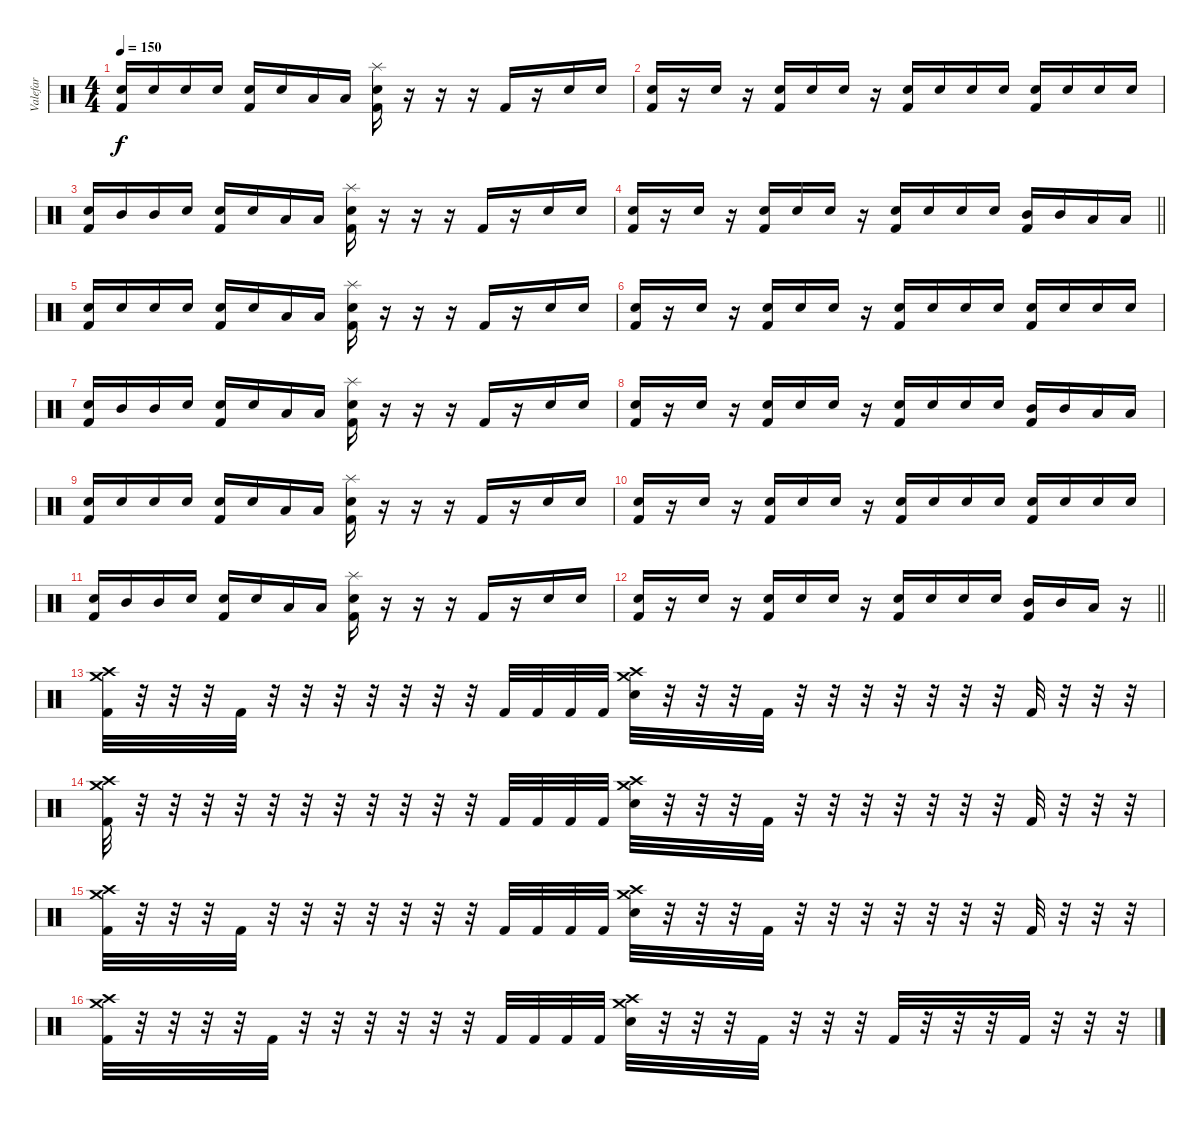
\track ("Valefar" "Valefar") {instrument percussion}
\staff {score}
\articulation defaults
\ts (4 4)
\tempo 150
\clef neutral
\ks c
("Electric Snare (hit)" "Kick (hit) 2").16{dy f} "Electric Snare (hit)".16 "Electric Snare (hit)".16 "Electric Snare (hit)".16 ("Electric Snare (hit)" "Kick (hit) 2").16 "Electric Snare (hit)".16 "Low Tom (hit)".16 "Low Tom (hit)".16 ("Splash (hit)" "Electric Snare (hit)" "Kick (hit) 2").16 r.16 r.16 r.16 "Kick (hit) 2".16 r.16 "Electric Snare (hit)".16 "Electric Snare (hit)".16 |
("Electric Snare (hit)" "Kick (hit) 2").16 r.16 "Electric Snare (hit)".16 r.16 ("Electric Snare (hit)" "Kick (hit) 2").16 "Electric Snare (hit)".16 "Electric Snare (hit)".16 r.16 ("Electric Snare (hit)" "Kick (hit) 2").16 "Electric Snare (hit)".16 "Electric Snare (hit)".16 "Electric Snare (hit)".16 ("Electric Snare (hit)" "Kick (hit) 2").16 "Electric Snare (hit)".16 "Electric Snare (hit)".16 "Electric Snare (hit)".16 |
("Electric Snare (hit)" "Kick (hit) 2").16 "Mid Tom (hit)".16 "Mid Tom (hit)".16 "Electric Snare (hit)".16 ("Electric Snare (hit)" "Kick (hit) 2").16 "Electric Snare (hit)".16 "Low Tom (hit)".16 "Low Tom (hit)".16 ("Splash (hit)" "Electric Snare (hit)" "Kick (hit) 2").16 r.16 r.16 r.16 "Kick (hit) 2".16 r.16 "Electric Snare (hit)".16 "Electric Snare (hit)".16 |
\barLineRight lightlight
("Electric Snare (hit)" "Kick (hit) 2").16 r.16 "Electric Snare (hit)".16 r.16 ("Electric Snare (hit)" "Kick (hit) 2").16 "Electric Snare (hit)".16 "Electric Snare (hit)".16 r.16 ("Electric Snare (hit)" "Kick (hit) 2").16 "Electric Snare (hit)".16 "Electric Snare (hit)".16 "Electric Snare (hit)".16 ("Mid Tom (hit)" "Kick (hit) 2").16 "Mid Tom (hit)".16 "Low Tom (hit)".16 "Low Tom (hit)".16 |
("Electric Snare (hit)" "Kick (hit) 2").16 "Electric Snare (hit)".16 "Electric Snare (hit)".16 "Electric Snare (hit)".16 ("Electric Snare (hit)" "Kick (hit) 2").16 "Electric Snare (hit)".16 "Low Tom (hit)".16 "Low Tom (hit)".16 ("Splash (hit)" "Electric Snare (hit)" "Kick (hit) 2").16 r.16 r.16 r.16 "Kick (hit) 2".16 r.16 "Electric Snare (hit)".16 "Electric Snare (hit)".16 |
("Electric Snare (hit)" "Kick (hit) 2").16 r.16 "Electric Snare (hit)".16 r.16 ("Electric Snare (hit)" "Kick (hit) 2").16 "Electric Snare (hit)".16 "Electric Snare (hit)".16 r.16 ("Electric Snare (hit)" "Kick (hit) 2").16 "Electric Snare (hit)".16 "Electric Snare (hit)".16 "Electric Snare (hit)".16 ("Electric Snare (hit)" "Kick (hit) 2").16 "Electric Snare (hit)".16 "Electric Snare (hit)".16 "Electric Snare (hit)".16 |
("Electric Snare (hit)" "Kick (hit) 2").16 "Mid Tom (hit)".16 "Mid Tom (hit)".16 "Electric Snare (hit)".16 ("Electric Snare (hit)" "Kick (hit) 2").16 "Electric Snare (hit)".16 "Low Tom (hit)".16 "Low Tom (hit)".16 ("Splash (hit)" "Electric Snare (hit)" "Kick (hit) 2").16 r.16 r.16 r.16 "Kick (hit) 2".16 r.16 "Electric Snare (hit)".16 "Electric Snare (hit)".16 |
("Electric Snare (hit)" "Kick (hit) 2").16 r.16 "Electric Snare (hit)".16 r.16 ("Electric Snare (hit)" "Kick (hit) 2").16 "Electric Snare (hit)".16 "Electric Snare (hit)".16 r.16 ("Electric Snare (hit)" "Kick (hit) 2").16 "Electric Snare (hit)".16 "Electric Snare (hit)".16 "Electric Snare (hit)".16 ("Mid Tom (hit)" "Kick (hit) 2").16 "Mid Tom (hit)".16 "Low Tom (hit)".16 "Low Tom (hit)".16 |
("Electric Snare (hit)" "Kick (hit) 2").16 "Electric Snare (hit)".16 "Electric Snare (hit)".16 "Electric Snare (hit)".16 ("Electric Snare (hit)" "Kick (hit) 2").16 "Electric Snare (hit)".16 "Low Tom (hit)".16 "Low Tom (hit)".16 ("Splash (hit)" "Electric Snare (hit)" "Kick (hit) 2").16 r.16 r.16 r.16 "Kick (hit) 2".16 r.16 "Electric Snare (hit)".16 "Electric Snare (hit)".16 |
("Electric Snare (hit)" "Kick (hit) 2").16 r.16 "Electric Snare (hit)".16 r.16 ("Electric Snare (hit)" "Kick (hit) 2").16 "Electric Snare (hit)".16 "Electric Snare (hit)".16 r.16 ("Electric Snare (hit)" "Kick (hit) 2").16 "Electric Snare (hit)".16 "Electric Snare (hit)".16 "Electric Snare (hit)".16 ("Electric Snare (hit)" "Kick (hit) 2").16 "Electric Snare (hit)".16 "Electric Snare (hit)".16 "Electric Snare (hit)".16 |
("Electric Snare (hit)" "Kick (hit) 2").16 "Mid Tom (hit)".16 "Mid Tom (hit)".16 "Electric Snare (hit)".16 ("Electric Snare (hit)" "Kick (hit) 2").16 "Electric Snare (hit)".16 "Low Tom (hit)".16 "Low Tom (hit)".16 ("Splash (hit)" "Electric Snare (hit)" "Kick (hit) 2").16 r.16 r.16 r.16 "Kick (hit) 2".16 r.16 "Electric Snare (hit)".16 "Electric Snare (hit)".16 |
\barLineRight lightlight
("Electric Snare (hit)" "Kick (hit) 2").16 r.16 "Electric Snare (hit)".16 r.16 ("Electric Snare (hit)" "Kick (hit) 2").16 "Electric Snare (hit)".16 "Electric Snare (hit)".16 r.16 ("Electric Snare (hit)" "Kick (hit) 2").16 "Electric Snare (hit)".16 "Electric Snare (hit)".16 "Electric Snare (hit)".16 ("Mid Tom (hit)" "Kick (hit) 2").16 "Mid Tom (hit)".16 "Low Tom (hit)".16 r.16 |
("Crash medium (hit)" "Crash high (hit)" "Kick (hit) 2").32 r.32 r.32 r.32 "Kick (hit) 2".32 r.32 r.32 r.32 r.32 r.32 r.32 r.32 "Kick (hit) 2".32 "Kick (hit) 2".32 "Kick (hit) 2".32 "Kick (hit) 2".32 ("Crash medium (hit)" "Crash high (hit)" "Electric Snare (hit)").32 r.32 r.32 r.32 "Kick (hit) 2".32 r.32 r.32 r.32 r.32 r.32 r.32 r.32 "Kick (hit) 2".32 r.32 r.32 r.32 |
("Crash medium (hit)" "Crash high (hit)" "Kick (hit) 2").32 r.32 r.32 r.32 r.32 r.32 r.32 r.32 r.32 r.32 r.32 r.32 "Kick (hit) 2".32 "Kick (hit) 2".32 "Kick (hit) 2".32 "Kick (hit) 2".32 ("Crash medium (hit)" "Crash high (hit)" "Electric Snare (hit)").32 r.32 r.32 r.32 "Kick (hit) 2".32 r.32 r.32 r.32 r.32 r.32 r.32 r.32 "Kick (hit) 2".32 r.32 r.32 r.32 |
("Crash medium (hit)" "Crash high (hit)" "Kick (hit) 2").32 r.32 r.32 r.32 "Kick (hit) 2".32 r.32 r.32 r.32 r.32 r.32 r.32 r.32 "Kick (hit) 2".32 "Kick (hit) 2".32 "Kick (hit) 2".32 "Kick (hit) 2".32 ("Crash medium (hit)" "Crash high (hit)" "Electric Snare (hit)").32 r.32 r.32 r.32 "Kick (hit) 2".32 r.32 r.32 r.32 r.32 r.32 r.32 r.32 "Kick (hit) 2".32 r.32 r.32 r.32 |
("Crash medium (hit)" "Crash high (hit)" "Kick (hit) 2").32 r.32 r.32 r.32 r.32 "Kick (hit) 2".32 r.32 r.32 r.32 r.32 r.32 r.32 "Kick (hit) 2".32 "Kick (hit) 2".32 "Kick (hit) 2".32 "Kick (hit) 2".32 ("Crash medium (hit)" "Crash high (hit)" "Electric Snare (hit)").32 r.32 r.32 r.32 "Kick (hit) 2".32 r.32 r.32 r.32 "Kick (hit) 2".32 r.32 r.32 r.32 "Kick (hit) 2".32 r.32 r.32 r.32
